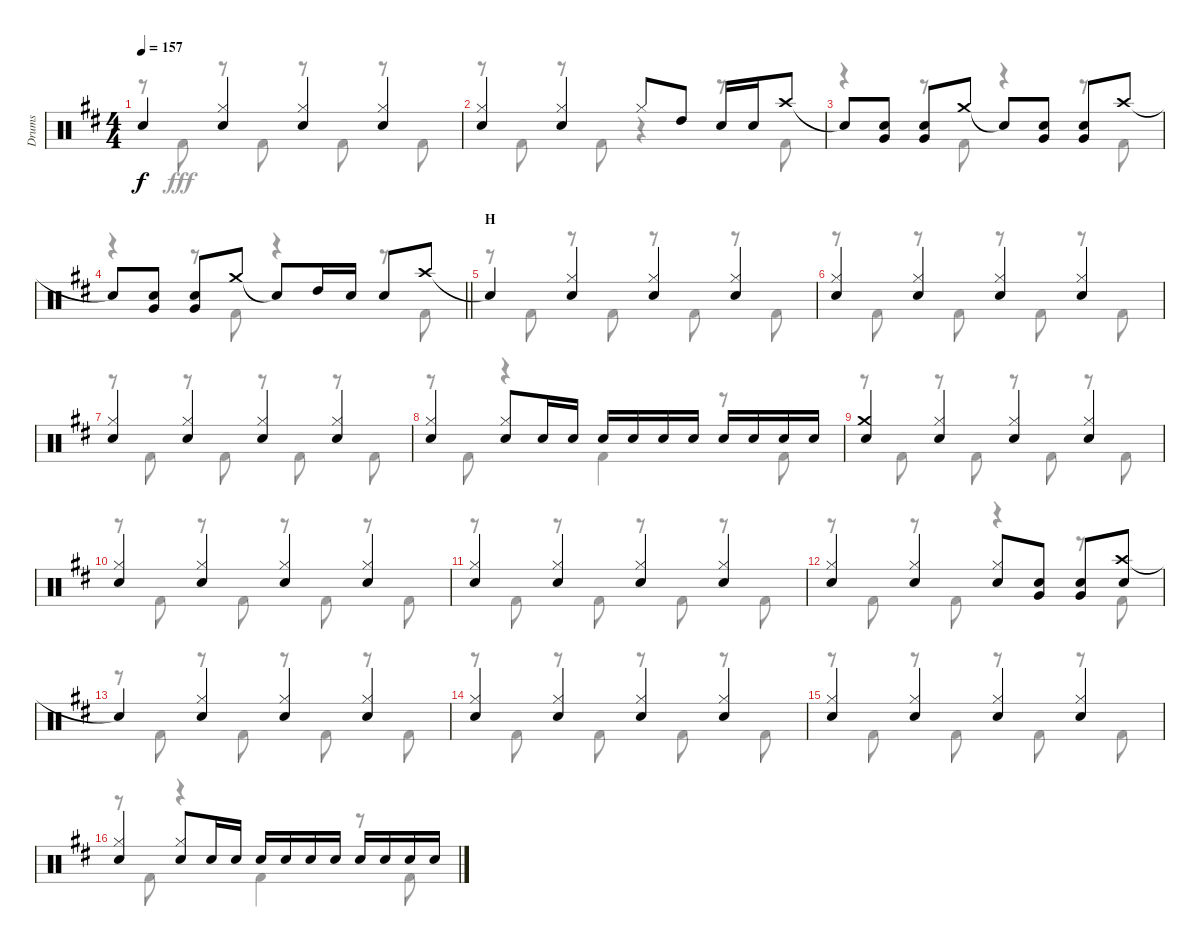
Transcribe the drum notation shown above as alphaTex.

\track ("Drums" "Drums") {instrument percussion}
\staff {score}
\articulation defaults
\voice
\ts (4 4)
\tempo 157
\clef neutral
\ks d "Snare (hit)"{t}.4{dy f}
("Hi-Hat (closed)" "Snare (hit) 2").4 ("Hi-Hat (closed)" "Snare (hit) 2").4 ("Hi-Hat (closed)" "Snare (hit) 2").4 |
("Hi-Hat (closed)" "Snare (hit) 2").4 ("Hi-Hat (closed)" "Snare (hit) 2").4 "Hi-Hat (closed)".8 "High Tom (hit)".8 "Snare (hit) 2".16 "Snare (hit) 2".16 "Crash high (hit)".8 |
"Snare (hit)"{t}.8 ("Snare (hit) 2" "Very Low Tom (hit)").8 ("Snare (hit) 2" "Very Low Tom (hit)").8 "Crash medium (hit)".8 "Snare (hit)"{t}.8 ("Snare (hit) 2" "Very Low Tom (hit)").8 ("Snare (hit) 2" "Very Low Tom (hit)").8 "Crash high (hit)".8 |
\barLineRight lightlight "Snare (hit)"{t}.8
("Snare (hit) 2" "Very Low Tom (hit)").8 ("Snare (hit) 2" "Very Low Tom (hit)").8 "Crash medium (hit)".8 "Snare (hit)"{t}.8 "High Tom (hit)".16 "Snare (hit) 2".16 "Snare (hit) 2".8 "Crash high (hit)".8 |
\section ("" "H")
"Snare (hit)"{t}.4 ("Hi-Hat (closed)" "Snare (hit) 2").4 ("Hi-Hat (closed)" "Snare (hit) 2").4 ("Hi-Hat (closed)" "Snare (hit) 2").4 |
("Hi-Hat (closed)" "Snare (hit) 2").4 ("Hi-Hat (closed)" "Snare (hit) 2").4 ("Hi-Hat (closed)" "Snare (hit) 2").4 ("Hi-Hat (closed)" "Snare (hit) 2").4 |
("Hi-Hat (closed)" "Snare (hit) 2").4 ("Hi-Hat (closed)" "Snare (hit) 2").4 ("Hi-Hat (closed)" "Snare (hit) 2").4 ("Hi-Hat (closed)" "Snare (hit) 2").4 |
("Hi-Hat (closed)" "Snare (hit) 2").4 ("Hi-Hat (closed)" "Snare (hit) 2").8 "Snare (hit) 2".16 "Snare (hit) 2".16 "Snare (hit) 2".16 "Snare (hit) 2".16 "Snare (hit) 2".16 "Snare (hit) 2".16 "Snare (hit) 2".16 "Snare (hit) 2".16 "Snare (hit) 2".16 "Snare (hit) 2".16 |
("Crash medium (hit)" "Snare (hit) 2").4 ("Hi-Hat (closed)" "Snare (hit) 2").4 ("Hi-Hat (closed)" "Snare (hit) 2").4 ("Hi-Hat (closed)" "Snare (hit) 2").4 |
("Hi-Hat (closed)" "Snare (hit) 2").4 ("Hi-Hat (closed)" "Snare (hit) 2").4 ("Hi-Hat (closed)" "Snare (hit) 2").4 ("Hi-Hat (closed)" "Snare (hit) 2").4 |
("Hi-Hat (closed)" "Snare (hit) 2").4 ("Hi-Hat (closed)" "Snare (hit) 2").4 ("Hi-Hat (closed)" "Snare (hit) 2").4 ("Hi-Hat (closed)" "Snare (hit) 2").4 |
("Hi-Hat (closed)" "Snare (hit) 2").4 ("Hi-Hat (closed)" "Snare (hit) 2").4 ("Hi-Hat (closed)" "Snare (hit) 2").8 ("Snare (hit) 2" "Very Low Tom (hit)").8 ("Snare (hit) 2" "Very Low Tom (hit)").8 ("Crash high (hit)" "Snare (hit) 2").8 |
"Snare (hit)"{t}.4 ("Hi-Hat (closed)" "Snare (hit) 2").4 ("Hi-Hat (closed)" "Snare (hit) 2").4 ("Hi-Hat (closed)" "Snare (hit) 2").4 |
("Hi-Hat (closed)" "Snare (hit) 2").4 ("Hi-Hat (closed)" "Snare (hit) 2").4 ("Hi-Hat (closed)" "Snare (hit) 2").4 ("Hi-Hat (closed)" "Snare (hit) 2").4 |
("Hi-Hat (closed)" "Snare (hit) 2").4 ("Hi-Hat (closed)" "Snare (hit) 2").4 ("Hi-Hat (closed)" "Snare (hit) 2").4 ("Hi-Hat (closed)" "Snare (hit) 2").4 |
("Hi-Hat (closed)" "Snare (hit) 2").4 ("Hi-Hat (closed)" "Snare (hit) 2").8 "Snare (hit) 2".16 "Snare (hit) 2".16 "Snare (hit) 2".16 "Snare (hit) 2".16 "Snare (hit) 2".16 "Snare (hit) 2".16 "Snare (hit) 2".16 "Snare (hit) 2".16 "Snare (hit) 2".16 "Snare (hit) 2".16
\voice
\clef neutral
\ottava regular
\simile none
\ks d
r.8{dy fff} "Kick (hit) 2".8 r.8 "Kick (hit) 2".8 r.8 "Kick (hit) 2".8 r.8 "Kick (hit) 2".8 |
r.8 "Kick (hit) 2".8 r.8 "Kick (hit) 2".8 r.4 r.8 "Kick (hit) 2".8 |
r.4 r.8 "Kick (hit) 2".8 r.4 r.8 "Kick (hit) 2".8 |
\barLineRight lightlight
r.4 r.8 "Kick (hit) 2".8 r.4 r.8 "Kick (hit) 2".8 |
r.8 "Kick (hit) 2".8 r.8 "Kick (hit) 2".8 r.8 "Kick (hit) 2".8 r.8 "Kick (hit) 2".8 |
r.8 "Kick (hit) 2".8 r.8 "Kick (hit) 2".8 r.8 "Kick (hit) 2".8 r.8 "Kick (hit) 2".8 |
r.8 "Kick (hit) 2".8 r.8 "Kick (hit) 2".8 r.8 "Kick (hit) 2".8 r.8 "Kick (hit) 2".8 |
r.8 "Kick (hit) 2".8 r.4 "Kick (hit) 2".4 r.8 "Kick (hit) 2".8 |
r.8 "Kick (hit) 2".8 r.8 "Kick (hit) 2".8 r.8 "Kick (hit) 2".8 r.8 "Kick (hit) 2".8 |
r.8 "Kick (hit) 2".8 r.8 "Kick (hit) 2".8 r.8 "Kick (hit) 2".8 r.8 "Kick (hit) 2".8 |
r.8 "Kick (hit) 2".8 r.8 "Kick (hit) 2".8 r.8 "Kick (hit) 2".8 r.8 "Kick (hit) 2".8 |
r.8 "Kick (hit) 2".8 r.8 "Kick (hit) 2".8 r.4 r.8 "Kick (hit) 2".8 |
r.8 "Kick (hit) 2".8 r.8 "Kick (hit) 2".8 r.8 "Kick (hit) 2".8 r.8 "Kick (hit) 2".8 |
r.8 "Kick (hit) 2".8 r.8 "Kick (hit) 2".8 r.8 "Kick (hit) 2".8 r.8 "Kick (hit) 2".8 |
r.8 "Kick (hit) 2".8 r.8 "Kick (hit) 2".8 r.8 "Kick (hit) 2".8 r.8 "Kick (hit) 2".8 |
r.8 "Kick (hit) 2".8 r.4 "Kick (hit) 2".4 r.8 "Kick (hit) 2".8
